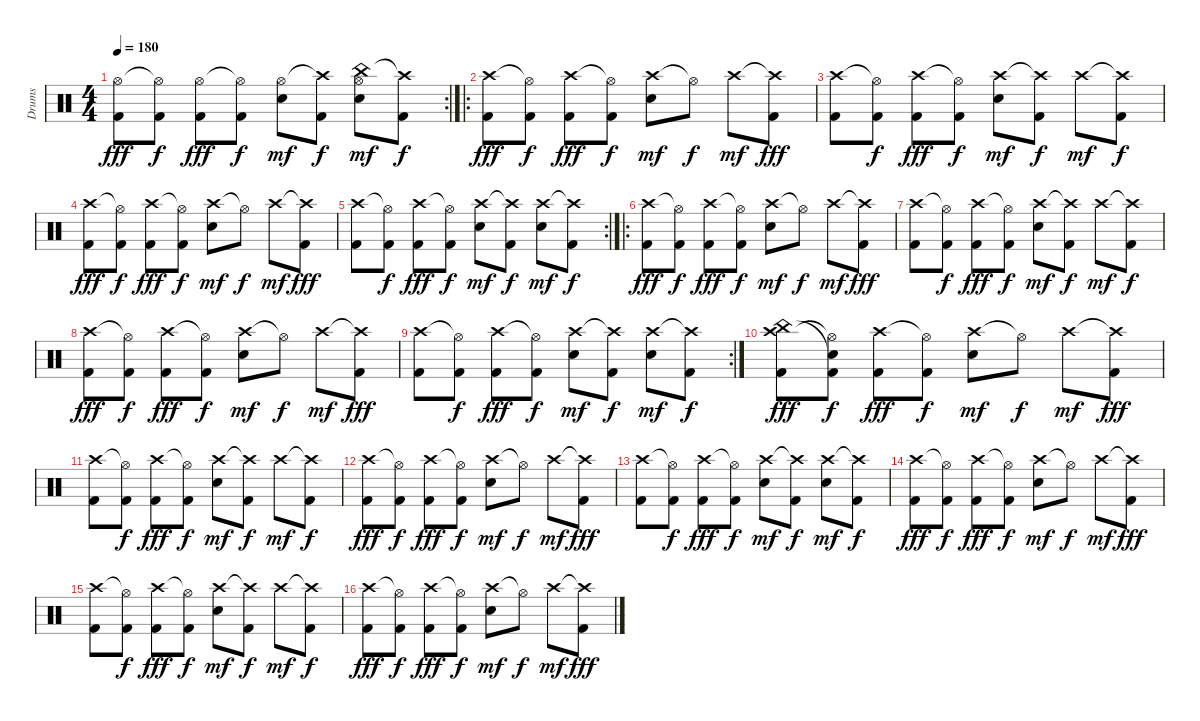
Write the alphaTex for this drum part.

\track ("Drums" "Drums") {instrument percussion}
\staff {score}
\articulation defaults
\rc 2
\ts (4 4)
\tempo 180
\clef neutral
\ks c
("Hi-Hat (open)" "Kick (hit) 2").8{dy fff} ("Hi-Hat (open)"{t} "Kick (hit) 2").8{dy f} ("Hi-Hat (open)" "Kick (hit) 2").8{dy fff} ("Hi-Hat (open)"{t} "Kick (hit) 2").8{dy f} ("Hi-Hat (open)" "Electric Snare (hit)").8{dy mf} ("Crash high (hit)"{t} "Kick (hit) 2").8{dy f} ("China (hit)" "Hi-Hat (open)" "Electric Snare (hit)").8{dy mf} ("Crash high (hit)"{t} "Kick (hit) 2").8{dy f} |
\ro
("Crash high (hit)" "Kick (hit) 2").8{dy fff} ("Hi-Hat (open)"{t} "Kick (hit) 2").8{dy f} ("Crash high (hit)" "Kick (hit) 2").8{dy fff} ("Hi-Hat (open)"{t} "Kick (hit) 2").8{dy f} ("Crash high (hit)" "Electric Snare (hit)").8{dy mf} "Hi-Hat (open)"{t}.8{dy f} "Crash high (hit)".8{dy mf} ("Crash high (hit)"{t} "Kick (hit) 2").8{dy fff} |
("Crash high (hit)" "Kick (hit) 2").8 ("Hi-Hat (open)"{t} "Kick (hit) 2").8{dy f} ("Crash high (hit)" "Kick (hit) 2").8{dy fff} ("Hi-Hat (open)"{t} "Kick (hit) 2").8{dy f} ("Crash high (hit)" "Electric Snare (hit)").8{dy mf} ("Crash high (hit)"{t} "Kick (hit) 2").8{dy f} "Crash high (hit)".8{dy mf} ("Crash high (hit)"{t} "Kick (hit) 2").8{dy f} |
("Crash high (hit)" "Kick (hit) 2").8{dy fff} ("Hi-Hat (open)"{t} "Kick (hit) 2").8{dy f} ("Crash high (hit)" "Kick (hit) 2").8{dy fff} ("Hi-Hat (open)"{t} "Kick (hit) 2").8{dy f} ("Crash high (hit)" "Electric Snare (hit)").8{dy mf} "Hi-Hat (open)"{t}.8{dy f} "Crash high (hit)".8{dy mf} ("Crash high (hit)"{t} "Kick (hit) 2").8{dy fff} |
\rc 2
("Crash high (hit)" "Kick (hit) 2").8 ("Hi-Hat (open)"{t} "Kick (hit) 2").8{dy f} ("Crash high (hit)" "Kick (hit) 2").8{dy fff} ("Hi-Hat (open)"{t} "Kick (hit) 2").8{dy f} ("Crash high (hit)" "Electric Snare (hit)").8{dy mf} ("Crash high (hit)"{t} "Kick (hit) 2").8{dy f} ("Crash high (hit)" "Electric Snare (hit)").8{dy mf} ("Crash high (hit)"{t} "Kick (hit) 2").8{dy f} |
\ro
("Crash high (hit)" "Kick (hit) 2").8{dy fff} ("Hi-Hat (open)"{t} "Kick (hit) 2").8{dy f} ("Crash high (hit)" "Kick (hit) 2").8{dy fff} ("Hi-Hat (open)"{t} "Kick (hit) 2").8{dy f} ("Crash high (hit)" "Electric Snare (hit)").8{dy mf} "Hi-Hat (open)"{t}.8{dy f} "Crash high (hit)".8{dy mf} ("Crash high (hit)"{t} "Kick (hit) 2").8{dy fff} |
("Crash high (hit)" "Kick (hit) 2").8 ("Hi-Hat (open)"{t} "Kick (hit) 2").8{dy f} ("Crash high (hit)" "Kick (hit) 2").8{dy fff} ("Hi-Hat (open)"{t} "Kick (hit) 2").8{dy f} ("Crash high (hit)" "Electric Snare (hit)").8{dy mf} ("Crash high (hit)"{t} "Kick (hit) 2").8{dy f} "Crash high (hit)".8{dy mf} ("Crash high (hit)"{t} "Kick (hit) 2").8{dy f} |
("Crash high (hit)" "Kick (hit) 2").8{dy fff} ("Hi-Hat (open)"{t} "Kick (hit) 2").8{dy f} ("Crash high (hit)" "Kick (hit) 2").8{dy fff} ("Hi-Hat (open)"{t} "Kick (hit) 2").8{dy f} ("Crash high (hit)" "Electric Snare (hit)").8{dy mf} "Hi-Hat (open)"{t}.8{dy f} "Crash high (hit)".8{dy mf} ("Crash high (hit)"{t} "Kick (hit) 2").8{dy fff} |
\rc 2
("Crash high (hit)" "Kick (hit) 2").8 ("Hi-Hat (open)"{t} "Kick (hit) 2").8{dy f} ("Crash high (hit)" "Kick (hit) 2").8{dy fff} ("Hi-Hat (open)"{t} "Kick (hit) 2").8{dy f} ("Crash high (hit)" "Electric Snare (hit)").8{dy mf} ("Crash high (hit)"{t} "Kick (hit) 2").8{dy f} ("Crash high (hit)" "Electric Snare (hit)").8{dy mf} ("Crash high (hit)"{t} "Kick (hit) 2").8{dy f} |
("Crash high (hit)" "China (hit)" "Kick (hit) 2").8{dy fff} ("Hi-Hat (open)"{t} "Snare (hit)"{t} "Kick (hit) 2").8{dy f} ("Crash high (hit)" "Kick (hit) 2").8{dy fff} ("Hi-Hat (open)"{t} "Kick (hit) 2").8{dy f} ("Crash high (hit)" "Electric Snare (hit)").8{dy mf} "Hi-Hat (open)"{t}.8{dy f} "Crash high (hit)".8{dy mf} ("Crash high (hit)"{t} "Kick (hit) 2").8{dy fff} |
("Crash high (hit)" "Kick (hit) 2").8 ("Hi-Hat (open)"{t} "Kick (hit) 2").8{dy f} ("Crash high (hit)" "Kick (hit) 2").8{dy fff} ("Hi-Hat (open)"{t} "Kick (hit) 2").8{dy f} ("Crash high (hit)" "Electric Snare (hit)").8{dy mf} ("Crash high (hit)"{t} "Kick (hit) 2").8{dy f} "Crash high (hit)".8{dy mf} ("Crash high (hit)"{t} "Kick (hit) 2").8{dy f} |
("Crash high (hit)" "Kick (hit) 2").8{dy fff} ("Hi-Hat (open)"{t} "Kick (hit) 2").8{dy f} ("Crash high (hit)" "Kick (hit) 2").8{dy fff} ("Hi-Hat (open)"{t} "Kick (hit) 2").8{dy f} ("Crash high (hit)" "Electric Snare (hit)").8{dy mf} "Hi-Hat (open)"{t}.8{dy f} "Crash high (hit)".8{dy mf} ("Crash high (hit)"{t} "Kick (hit) 2").8{dy fff} |
("Crash high (hit)" "Kick (hit) 2").8 ("Hi-Hat (open)"{t} "Kick (hit) 2").8{dy f} ("Crash high (hit)" "Kick (hit) 2").8{dy fff} ("Hi-Hat (open)"{t} "Kick (hit) 2").8{dy f} ("Crash high (hit)" "Electric Snare (hit)").8{dy mf} ("Crash high (hit)"{t} "Kick (hit) 2").8{dy f} ("Crash high (hit)" "Electric Snare (hit)").8{dy mf} ("Crash high (hit)"{t} "Kick (hit) 2").8{dy f} |
("Crash high (hit)" "Kick (hit) 2").8{dy fff} ("Hi-Hat (open)"{t} "Kick (hit) 2").8{dy f} ("Crash high (hit)" "Kick (hit) 2").8{dy fff} ("Hi-Hat (open)"{t} "Kick (hit) 2").8{dy f} ("Crash high (hit)" "Electric Snare (hit)").8{dy mf} "Hi-Hat (open)"{t}.8{dy f} "Crash high (hit)".8{dy mf} ("Crash high (hit)"{t} "Kick (hit) 2").8{dy fff} |
("Crash high (hit)" "Kick (hit) 2").8 ("Hi-Hat (open)"{t} "Kick (hit) 2").8{dy f} ("Crash high (hit)" "Kick (hit) 2").8{dy fff} ("Hi-Hat (open)"{t} "Kick (hit) 2").8{dy f} ("Crash high (hit)" "Electric Snare (hit)").8{dy mf} ("Crash high (hit)"{t} "Kick (hit) 2").8{dy f} "Crash high (hit)".8{dy mf} ("Crash high (hit)"{t} "Kick (hit) 2").8{dy f} |
("Crash high (hit)" "Kick (hit) 2").8{dy fff} ("Hi-Hat (open)"{t} "Kick (hit) 2").8{dy f} ("Crash high (hit)" "Kick (hit) 2").8{dy fff} ("Hi-Hat (open)"{t} "Kick (hit) 2").8{dy f} ("Crash high (hit)" "Electric Snare (hit)").8{dy mf} "Hi-Hat (open)"{t}.8{dy f} "Crash high (hit)".8{dy mf} ("Crash high (hit)"{t} "Kick (hit) 2").8{dy fff}
